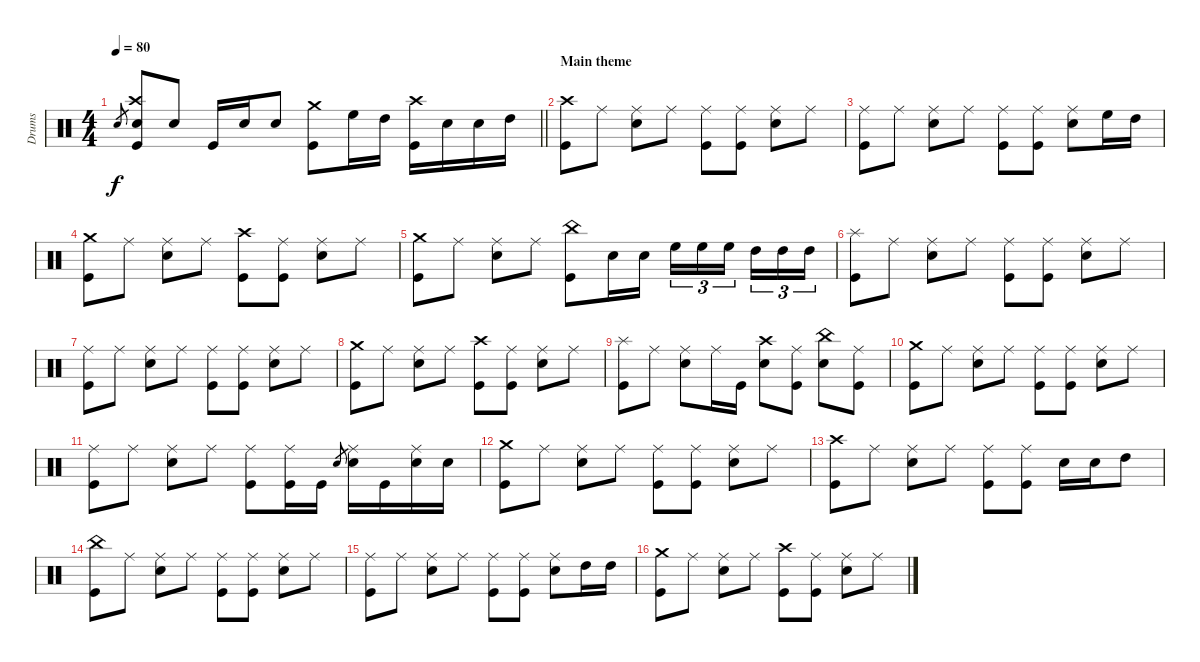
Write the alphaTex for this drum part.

\track ("Drums" "Drums") {instrument percussion}
\staff {score}
\articulation defaults
\ts (4 4)
\tempo 80
\clef neutral
\barLineRight lightlight
\ks c "Snare (hit) 2".8{gr dy f}
("Snare (hit) 2" "Crash high (hit)" "Kick (hit)").8{volume 12} "Snare (hit) 2".8 "Kick (hit)".16 "Snare (hit) 2".16 "Snare (hit) 2".8 ("Kick (hit)" "Crash medium (hit)").8 "High Floor Tom (hit)".16 "High Tom (hit)".16 ("Kick (hit)" "Crash high (hit)").16 "Snare (hit) 2".16 "Snare (hit) 2".16 "High Tom (hit)".16 |
\section ("" "Main theme")
("Crash high (hit)" "Kick (hit)").8 "Ride (middle)".8 ("Snare (hit) 2" "Ride (middle)").8 "Ride (middle)".8 ("Kick (hit)" "Ride (middle)").8 ("Kick (hit)" "Ride (middle)").8 ("Snare (hit) 2" "Ride (middle)").8 "Ride (middle)".8 |
("Ride (middle)" "Kick (hit)").8 "Ride (middle)".8 ("Snare (hit) 2" "Ride (middle)").8 "Ride (middle)".8 ("Kick (hit)" "Ride (middle)").8 ("Kick (hit)" "Ride (middle)").8 ("Snare (hit) 2" "Ride (middle)").8 "High Floor Tom (hit)".16 "High Tom (hit)".16 |
("Crash medium (hit)" "Kick (hit)").8 "Ride (middle)".8 ("Snare (hit) 2" "Ride (middle)").8 "Ride (middle)".8 ("Kick (hit)" "Crash high (hit)").8 ("Kick (hit)" "Ride (middle)").8 ("Snare (hit) 2" "Ride (middle)").8 "Ride (middle)".8 |
("Crash medium (hit)" "Kick (hit)").8 "Ride (middle)".8 ("Snare (hit) 2" "Ride (middle)").8 "Ride (middle)".8 ("Kick (hit)" "China (hit)").8 "Snare (hit) 2".16 "Snare (hit) 2".16 "High Floor Tom (hit)".16{tu (3 2)} "High Floor Tom (hit)".16{tu (3 2)} "High Floor Tom (hit)".16{tu (3 2) beam splitsecondary} "High Tom (hit)".16{tu (3 2)} "High Tom (hit)".16{tu (3 2)} "High Tom (hit)".16{tu (3 2)} |
("Splash (hit)" "Kick (hit)").8 "Ride (middle)".8 ("Snare (hit) 2" "Ride (middle)").8 "Ride (middle)".8 ("Kick (hit)" "Ride (middle)").8 ("Kick (hit)" "Ride (middle)").8 ("Snare (hit) 2" "Ride (middle)").8 "Ride (middle)".8 |
("Ride (middle)" "Kick (hit)").8 "Ride (middle)".8 ("Snare (hit) 2" "Ride (middle)").8 "Ride (middle)".8 ("Kick (hit)" "Ride (middle)").8 ("Kick (hit)" "Ride (middle)").8 ("Snare (hit) 2" "Ride (middle)").8 "Ride (middle)".8 |
("Crash medium (hit)" "Kick (hit)").8 "Ride (middle)".8 ("Snare (hit) 2" "Ride (middle)").8 "Ride (middle)".8 ("Kick (hit)" "Crash high (hit)").8 ("Kick (hit)" "Ride (middle)").8 ("Snare (hit) 2" "Ride (middle)").8 "Ride (middle)".8 |
("Splash (hit)" "Kick (hit)").8 "Ride (middle)".8 ("Snare (hit) 2" "Ride (middle)").8 "Ride (middle)".16 "Kick (hit)".16 ("Snare (hit) 2" "Crash high (hit)").8 ("Kick (hit)" "Ride (middle)").8 ("Snare (hit) 2" "China (hit)").8 ("Kick (hit)" "Ride (middle)").8 |
("Crash medium (hit)" "Kick (hit)").8 "Ride (middle)".8 ("Snare (hit) 2" "Ride (middle)").8 "Ride (middle)".8 ("Kick (hit)" "Ride (middle)").8 ("Kick (hit)" "Ride (middle)").8 ("Snare (hit) 2" "Ride (middle)").8 "Ride (middle)".8 |
("Ride (middle)" "Kick (hit)").8 "Ride (middle)".8 ("Snare (hit) 2" "Ride (middle)").8 "Ride (middle)".8 ("Kick (hit)" "Ride (middle)").8 ("Kick (hit)" "Ride (middle)").16 "Kick (hit)".16 "Snare (hit) 2".8{gr} ("Snare (hit) 2" "Ride (middle)").16 "Kick (hit)".16 ("Snare (hit) 2" "Ride (middle)").16 "Snare (hit) 2".16 |
("Crash medium (hit)" "Kick (hit)").8 "Ride (middle)".8 ("Snare (hit) 2" "Ride (middle)").8 "Ride (middle)".8 ("Kick (hit)" "Ride (middle)").8 ("Kick (hit)" "Ride (middle)").8 ("Snare (hit) 2" "Ride (middle)").8 "Ride (middle)".8 |
("Crash high (hit)" "Kick (hit)").8 "Ride (middle)".8 ("Snare (hit) 2" "Ride (middle)").8 "Ride (middle)".8 ("Kick (hit)" "Ride (middle)").8 ("Kick (hit)" "Ride (middle)").8 "Snare (hit) 2".16 "Snare (hit) 2".16 "High Tom (hit)".8 |
("China (hit)" "Kick (hit)").8 "Ride (middle)".8 ("Snare (hit) 2" "Ride (middle)").8 "Ride (middle)".8 ("Kick (hit)" "Ride (middle)").8 ("Kick (hit)" "Ride (middle)").8 ("Snare (hit) 2" "Ride (middle)").8 "Ride (middle)".8 |
("Ride (middle)" "Kick (hit)").8 "Ride (middle)".8 ("Snare (hit) 2" "Ride (middle)").8 "Ride (middle)".8 ("Kick (hit)" "Ride (middle)").8 ("Kick (hit)" "Ride (middle)").8 ("Snare (hit) 2" "Ride (middle)").8 "High Tom (hit)".16 "High Tom (hit)".16 |
("Crash medium (hit)" "Kick (hit)").8 "Ride (middle)".8 ("Snare (hit) 2" "Ride (middle)").8 "Ride (middle)".8 ("Kick (hit)" "Crash high (hit)").8 ("Kick (hit)" "Ride (middle)").8 ("Snare (hit) 2" "Ride (middle)").8 "Ride (middle)".8
